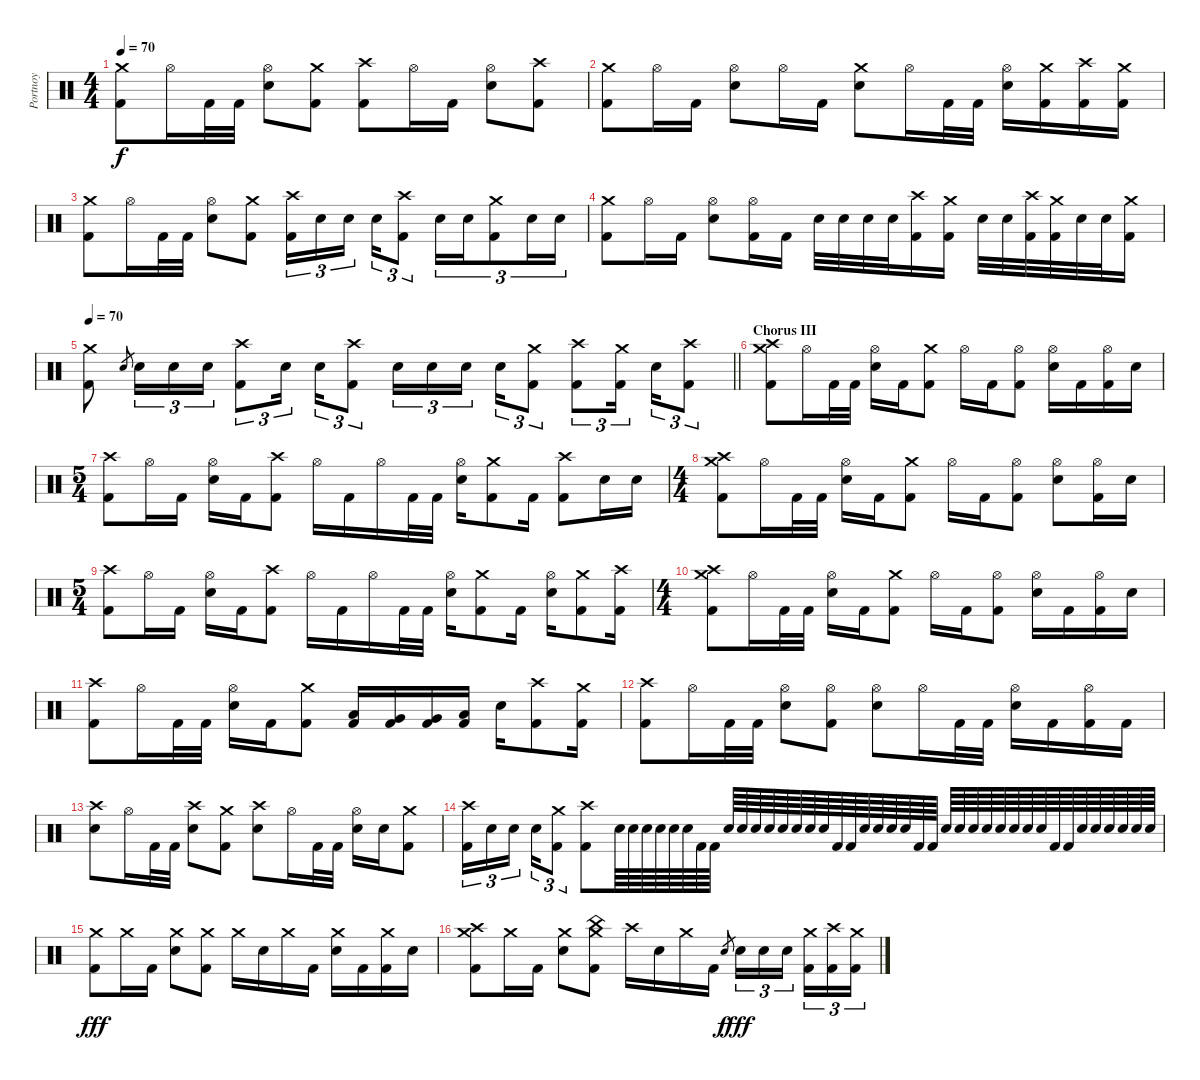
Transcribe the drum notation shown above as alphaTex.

\track ("Portnoy" "Portnoy") {instrument percussion}
\staff {score}
\articulation defaults
\ts (4 4)
\tempo 70
\clef neutral
\ks c
("Crash medium (hit)" "Kick (hit) 2").8{dy f} "Hi-Hat (open)".16 "Kick (hit) 2".32 "Kick (hit) 2".32 ("Hi-Hat (open)" "Snare (hit) 2").8 ("Crash medium (hit)" "Kick (hit) 2").8 ("Crash high (hit)" "Kick (hit) 2").8 "Hi-Hat (open)".16 "Kick (hit) 2".16 ("Snare (hit) 2" "Hi-Hat (open)").8 ("Crash high (hit)" "Kick (hit) 2").8 |
("Crash medium (hit)" "Kick (hit) 2").8 "Hi-Hat (open)".16 "Kick (hit) 2".16 ("Snare (hit) 2" "Hi-Hat (open)").8 "Hi-Hat (open)".16 "Kick (hit) 2".16 ("Crash medium (hit)" "Snare (hit) 2").8 "Hi-Hat (open)".16 "Kick (hit) 2".32 "Kick (hit) 2".32 ("Snare (hit) 2" "Hi-Hat (open)").16 ("Crash medium (hit)" "Kick (hit) 2").16 ("Kick (hit) 2" "Crash high (hit)").16 ("Kick (hit) 2" "Crash medium (hit)").16 |
("Crash medium (hit)" "Kick (hit) 2").8 "Hi-Hat (open)".16 "Kick (hit) 2".32 "Kick (hit) 2".32 ("Hi-Hat (open)" "Snare (hit) 2").8 ("Crash medium (hit)" "Kick (hit) 2").8 ("Crash high (hit)" "Kick (hit) 2").16{tu (3 2)} "Snare (hit) 2".16{tu (3 2)} "Snare (hit) 2".16{tu (3 2) beam splitsecondary} "Snare (hit) 2".16{tu (3 2)} ("Crash high (hit)" "Kick (hit) 2").8{tu (3 2)} "Snare (hit) 2".16{tu (3 2)} "Snare (hit) 2".16{tu (3 2)} ("Crash medium (hit)" "Kick (hit) 2").8{tu (3 2)} "Snare (hit) 2".16{tu (3 2)} "Snare (hit) 2".16{tu (3 2)} |
("Crash medium (hit)" "Kick (hit) 2").8 "Hi-Hat (open)".16 "Kick (hit) 2".16 ("Hi-Hat (open)" "Snare (hit) 2").8 ("Kick (hit) 2" "Hi-Hat (open)").16 "Kick (hit) 2".16 "Snare (hit) 2".32 "Snare (hit) 2".32 "Snare (hit) 2".32 "Snare (hit) 2".32 ("Crash high (hit)" "Kick (hit) 2").16 ("Crash medium (hit)" "Kick (hit) 2").16 "Snare (hit) 2".32 "Snare (hit) 2".32 ("Crash high (hit)" "Kick (hit) 2").32 ("Crash medium (hit)" "Kick (hit) 2").32 "Snare (hit) 2".32 "Snare (hit) 2".32 ("Crash medium (hit)" "Kick (hit) 2").16 |
\tempo 70
\barLineRight lightlight
("Crash medium (hit)" "Kick (hit) 2").8 "Snare (hit) 2".8{gr} "Snare (hit) 2".16{tu (3 2)} "Snare (hit) 2".16{tu (3 2)} "Snare (hit) 2".16{tu (3 2)} ("Crash high (hit)" "Kick (hit) 2").8{tu (3 2)} "Snare (hit) 2".16{tu (3 2) beam splitsecondary} "Snare (hit) 2".16{tu (3 2)} ("Crash high (hit)" "Kick (hit) 2").8{tu (3 2)} "Snare (hit) 2".16{tu (3 2)} "Snare (hit) 2".16{tu (3 2)} "Snare (hit) 2".16{tu (3 2) beam splitsecondary} "Snare (hit) 2".16{tu (3 2)} ("Crash medium (hit)" "Kick (hit) 2").8{tu (3 2)} ("Crash high (hit)" "Kick (hit) 2").8{tu (3 2)} ("Crash medium (hit)" "Kick (hit) 2").16{tu (3 2) beam splitsecondary} "Snare (hit) 2".16{tu (3 2)} ("Crash high (hit)" "Kick (hit) 2").8{tu (3 2)} |
\section ("" "Chorus III")
("Crash medium (hit)" "Crash high (hit)" "Kick (hit) 2").8 "Hi-Hat (open)".16 "Kick (hit) 2".32 "Kick (hit) 2".32 ("Hi-Hat (open)" "Snare (hit) 2").16 "Kick (hit) 2".16 ("Crash medium (hit)" "Kick (hit) 2").8 "Hi-Hat (open)".16 "Kick (hit) 2".16 ("Kick (hit) 2" "Hi-Hat (open)").8 ("Hi-Hat (open)" "Snare (hit) 2").16 "Kick (hit) 2".16 ("Kick (hit) 2" "Hi-Hat (open)").16 "Snare (hit) 2".16 |
\ts (5 4)
("Crash high (hit)" "Kick (hit) 2").8 "Hi-Hat (open)".16 "Kick (hit) 2".16 ("Hi-Hat (open)" "Snare (hit) 2").16 "Kick (hit) 2".16 ("Crash high (hit)" "Kick (hit) 2").8 "Hi-Hat (open)".16 "Kick (hit) 2".16 "Hi-Hat (open)".16 "Kick (hit) 2".32 "Kick (hit) 2".32 ("Hi-Hat (open)" "Snare (hit) 2").16 ("Kick (hit) 2" "Crash medium (hit)").8 "Kick (hit) 2".16 ("Crash high (hit)" "Kick (hit) 2").8 "Snare (hit) 2".16 "Snare (hit) 2".16 |
\ts (4 4)
("Crash medium (hit)" "Crash high (hit)" "Kick (hit) 2").8 "Hi-Hat (open)".16 "Kick (hit) 2".32 "Kick (hit) 2".32 ("Hi-Hat (open)" "Snare (hit) 2").16 "Kick (hit) 2".16 ("Crash medium (hit)" "Kick (hit) 2").8 "Hi-Hat (open)".16 "Kick (hit) 2".16 ("Kick (hit) 2" "Hi-Hat (open)").8 ("Hi-Hat (open)" "Snare (hit) 2").8 ("Kick (hit) 2" "Hi-Hat (open)").16 "Snare (hit) 2".16 |
\ts (5 4)
("Crash high (hit)" "Kick (hit) 2").8 "Hi-Hat (open)".16 "Kick (hit) 2".16 ("Hi-Hat (open)" "Snare (hit) 2").16 "Kick (hit) 2".16 ("Crash high (hit)" "Kick (hit) 2").8 "Hi-Hat (open)".16 "Kick (hit) 2".16 "Hi-Hat (open)".16 "Kick (hit) 2".32 "Kick (hit) 2".32 ("Hi-Hat (open)" "Snare (hit) 2").16 ("Kick (hit) 2" "Crash medium (hit)").8 "Kick (hit) 2".16 ("Hi-Hat (open)" "Snare (hit) 2").16 ("Kick (hit) 2" "Crash medium (hit)").8 ("Kick (hit) 2" "Crash high (hit)").16 |
\ts (4 4)
("Crash medium (hit)" "Crash high (hit)" "Kick (hit) 2").8 "Hi-Hat (open)".16 "Kick (hit) 2".32 "Kick (hit) 2".32 ("Hi-Hat (open)" "Snare (hit) 2").16 "Kick (hit) 2".16 ("Crash medium (hit)" "Kick (hit) 2").8 "Hi-Hat (open)".16 "Kick (hit) 2".16 ("Kick (hit) 2" "Hi-Hat (open)").8 ("Hi-Hat (open)" "Snare (hit) 2").16 "Kick (hit) 2".16 ("Kick (hit) 2" "Hi-Hat (open)").16 "Snare (hit) 2".16 |
("Crash high (hit)" "Kick (hit) 2").8 "Hi-Hat (open)".16 "Kick (hit) 2".32 "Kick (hit) 2".32 ("Hi-Hat (open)" "Snare (hit) 2").16 "Kick (hit) 2".16 ("Crash medium (hit)" "Kick (hit) 2").8 ("Low Tom (hit)" "Kick (hit) 2").16 ("Kick (hit) 2" "Very Low Tom (hit)").16 ("Kick (hit) 2" "Very Low Tom (hit)").16 ("Kick (hit) 2" "Low Floor Tom (hit)").16 "Snare (hit) 2".16 ("Crash high (hit)" "Kick (hit) 2").8 ("Crash medium (hit)" "Kick (hit) 2").16 |
("Crash high (hit)" "Kick (hit) 2").8 "Hi-Hat (open)".16 "Kick (hit) 2".32 "Kick (hit) 2".32 ("Hi-Hat (open)" "Snare (hit) 2").8 ("Hi-Hat (open)" "Kick (hit) 2").8 ("Hi-Hat (open)" "Snare (hit) 2").8 "Hi-Hat (open)".16 "Kick (hit) 2".32 "Kick (hit) 2".32 ("Hi-Hat (open)" "Snare (hit) 2").16 "Kick (hit) 2".16 ("Hi-Hat (open)" "Kick (hit) 2").16 "Kick (hit) 2".16 |
("Crash high (hit)" "Snare (hit) 2").8 "Hi-Hat (open)".16 "Kick (hit) 2".32 "Kick (hit) 2".32 ("Crash high (hit)" "Snare (hit) 2").8 ("Crash medium (hit)" "Kick (hit) 2").8 ("Crash high (hit)" "Snare (hit) 2").8 "Hi-Hat (open)".16 "Kick (hit) 2".32 "Kick (hit) 2".32 ("Hi-Hat (open)" "Snare (hit) 2").16 "Snare (hit) 2".16 ("Crash medium (hit)" "Kick (hit) 2").8 |
("Crash high (hit)" "Kick (hit) 2").16{tu (3 2)} "Snare (hit) 2".16{tu (3 2)} "Snare (hit) 2".16{tu (3 2) beam splitsecondary} "Snare (hit) 2".16{tu (3 2)} ("Crash medium (hit)" "Kick (hit) 2").8{tu (3 2)} ("Crash high (hit)" "Kick (hit) 2").8 "Snare (hit) 2".64 "Snare (hit) 2".64 "Snare (hit) 2".64 "Snare (hit) 2".64 "Snare (hit) 2".64 "Snare (hit) 2".64 "Kick (hit) 2".64 "Kick (hit) 2".64 "Snare (hit) 2".64 "Snare (hit) 2".64 "Snare (hit) 2".64 "Snare (hit) 2".64 "Snare (hit) 2".64 "Snare (hit) 2".64 "Snare (hit) 2".64 "Snare (hit) 2".64 "Kick (hit) 2".64 "Kick (hit) 2".64 "Snare (hit) 2".64 "Snare (hit) 2".64 "Snare (hit) 2".64 "Snare (hit) 2".64 "Kick (hit) 2".64 "Kick (hit) 2".64 "Snare (hit) 2".64 "Snare (hit) 2".64 "Snare (hit) 2".64 "Snare (hit) 2".64 "Snare (hit) 2".64 "Snare (hit) 2".64 "Snare (hit) 2".64 "Snare (hit) 2".64 "Kick (hit) 2".64 "Kick (hit) 2".64 "Snare (hit) 2".64 "Snare (hit) 2".64 "Snare (hit) 2".64 "Snare (hit) 2".64 "Snare (hit) 2".64 "Snare (hit) 2".64 |
("Crash medium (hit)" "Kick (hit) 2").8{dy fff} "Crash medium (hit)".16 "Kick (hit) 2".16 ("Crash medium (hit)" "Snare (hit) 2").8 ("Crash medium (hit)" "Kick (hit) 2").8 "Crash medium (hit)".16 "Snare (hit) 2".16 "Crash medium (hit)".16 "Kick (hit) 2".16 ("Crash medium (hit)" "Snare (hit) 2").16 "Kick (hit) 2".16 ("Kick (hit) 2" "Crash medium (hit)").16 "Snare (hit) 2".16 |
("Crash medium (hit)" "Kick (hit) 2" "Crash high (hit)").8 "Crash medium (hit)".16 "Kick (hit) 2".16 ("Crash medium (hit)" "Snare (hit) 2").8 ("China (hit)" "Kick (hit) 2" "Crash medium (hit)").8 "Crash high (hit)".16 "Snare (hit) 2".16 "Crash medium (hit)".16 "Kick (hit) 2".16 "Snare (hit) 2".8{gr dy f} "Snare (hit) 2".16{tu (3 2) dy fff} "Snare (hit) 2".16{tu (3 2)} "Snare (hit) 2".16{tu (3 2) beam splitsecondary} ("Kick (hit) 2" "Crash medium (hit)").16{tu (3 2)} ("Kick (hit) 2" "Crash high (hit)").16{tu (3 2)} ("Kick (hit) 2" "Crash medium (hit)").16{tu (3 2)}
